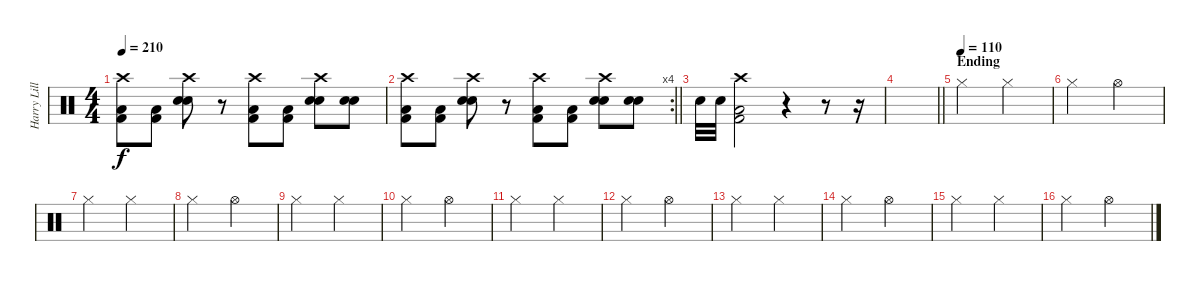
\track ("Harry Lillevars" "Harry Lill") {instrument percussion}
\staff {score}
\articulation defaults
\ts (4 4)
\tempo 210
\clef neutral
\ks c
("Crash high (hit)" "Kick (hit) 2" "Low Floor Tom (hit)").8{dy f} ("Kick (hit) 2" "Low Floor Tom (hit)").8 ("Crash high (hit)" "Electric Snare (hit)" "Electric Snare (hit)").8 r.8 ("Crash high (hit)" "Kick (hit) 2" "Low Floor Tom (hit)").8 ("Kick (hit) 2" "Low Floor Tom (hit)").8 ("Crash high (hit)" "Electric Snare (hit)" "Electric Snare (hit)").8 ("Electric Snare (hit)" "Electric Snare (hit)").8 |
\rc 4
\barLineRight lightlight
("Crash high (hit)" "Kick (hit) 2" "Low Floor Tom (hit)").8 ("Kick (hit) 2" "Low Floor Tom (hit)").8 ("Crash high (hit)" "Electric Snare (hit)" "Electric Snare (hit)").8 r.8 ("Crash high (hit)" "Kick (hit) 2" "Low Floor Tom (hit)").8 ("Kick (hit) 2" "Low Floor Tom (hit)").8 ("Crash high (hit)" "Electric Snare (hit)" "Electric Snare (hit)").8 ("Electric Snare (hit)" "Electric Snare (hit)").8 |
\section ("" "")
"Electric Snare (hit)".32 "Electric Snare (hit)".32 ("Crash high (hit)" "Kick (hit) 2" "Low Floor Tom (hit)").2 r.4 r.8 r.16 |
\barLineRight lightlight
|
\section ("" "Ending")
\tempo (110)
"Hi-Hat (closed)".2 "Hi-Hat (closed)".2 |
"Hi-Hat (closed)".2 "Hi-Hat (open)".2 |
"Hi-Hat (closed)".2 "Hi-Hat (closed)".2 |
"Hi-Hat (closed)".2 "Hi-Hat (open)".2 |
"Hi-Hat (closed)".2 "Hi-Hat (closed)".2 |
"Hi-Hat (closed)".2 "Hi-Hat (open)".2 |
"Hi-Hat (closed)".2 "Hi-Hat (closed)".2 |
"Hi-Hat (closed)".2 "Hi-Hat (open)".2 |
"Hi-Hat (closed)".2 "Hi-Hat (closed)".2 |
"Hi-Hat (closed)".2 "Hi-Hat (open)".2 |
"Hi-Hat (closed)".2 "Hi-Hat (closed)".2 |
"Hi-Hat (closed)".2 "Hi-Hat (open)".2
